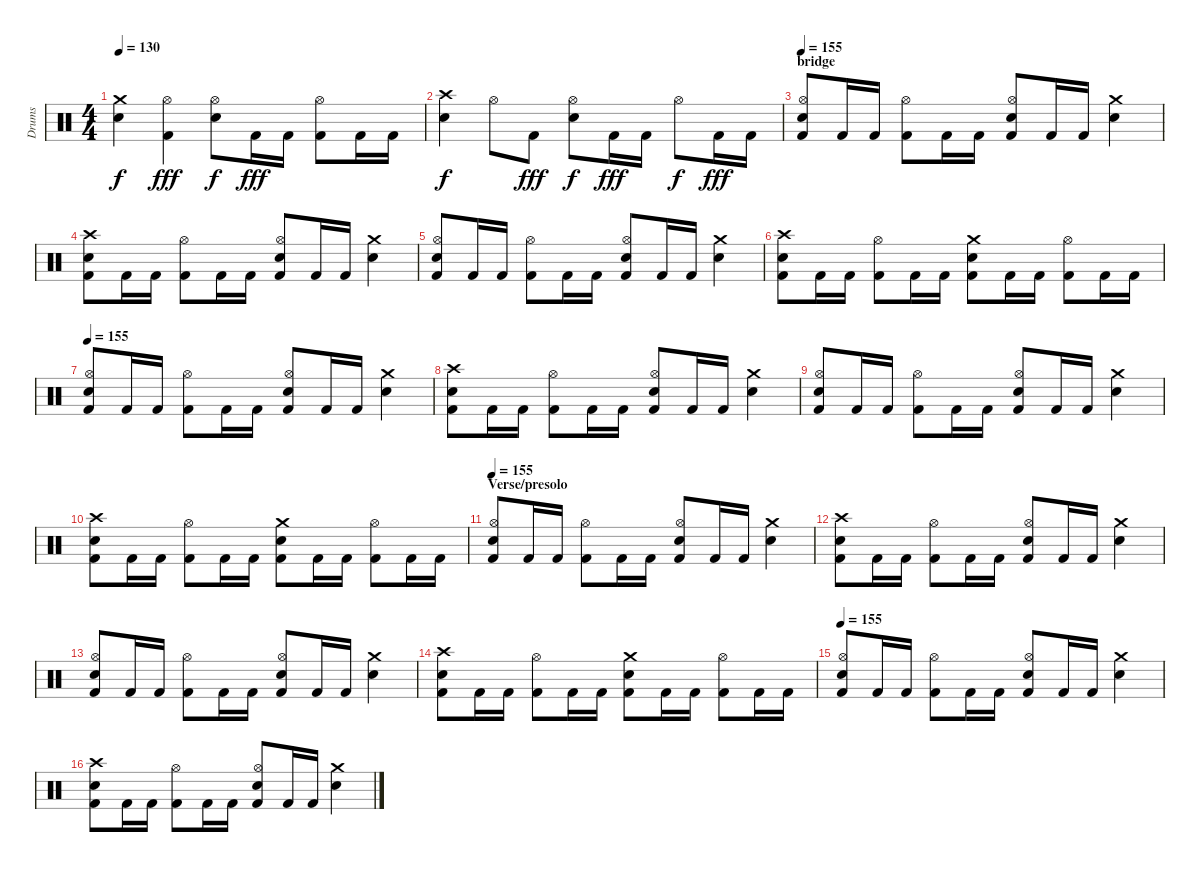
\track ("Drums" "Drums") {instrument percussion}
\staff {score}
\articulation defaults
\ts (4 4)
\tempo 130
\clef neutral
\ks c
("Crash medium (hit)" "Electric Snare (hit)").4{dy f} ("Hi-Hat (open)" "Kick (hit) 2").4{dy fff} ("Hi-Hat (open)" "Electric Snare (hit)").8{dy f} "Kick (hit) 2".16{dy fff} "Kick (hit) 2".16 ("Hi-Hat (open)" "Kick (hit) 2").8 "Kick (hit) 2".16 "Kick (hit) 2".16 |
("Crash high (hit)" "Electric Snare (hit)").4{dy f} "Hi-Hat (open)".8 "Kick (hit) 2".8{dy fff} ("Hi-Hat (open)" "Electric Snare (hit)").8{dy f} "Kick (hit) 2".16{dy fff} "Kick (hit) 2".16 "Hi-Hat (open)".8{dy f} "Kick (hit) 2".16{dy fff} "Kick (hit) 2".16 |
\section ("" "bridge")
\tempo 155
("Hi-Hat (open)" "Electric Snare (hit)" "Kick (hit) 2").8 "Kick (hit) 2".16 "Kick (hit) 2".16 ("Hi-Hat (open)" "Kick (hit) 2").8 "Kick (hit) 2".16 "Kick (hit) 2".16 ("Hi-Hat (open)" "Electric Snare (hit)" "Kick (hit) 2").8 "Kick (hit) 2".16 "Kick (hit) 2".16 ("Crash medium (hit)" "Electric Snare (hit)").4 |
("Crash high (hit)" "Electric Snare (hit)" "Kick (hit) 2").8 "Kick (hit) 2".16 "Kick (hit) 2".16 ("Hi-Hat (open)" "Kick (hit) 2").8 "Kick (hit) 2".16 "Kick (hit) 2".16 ("Hi-Hat (open)" "Electric Snare (hit)" "Kick (hit) 2").8 "Kick (hit) 2".16 "Kick (hit) 2".16 ("Crash medium (hit)" "Electric Snare (hit)").4 |
("Hi-Hat (open)" "Electric Snare (hit)" "Kick (hit) 2").8 "Kick (hit) 2".16 "Kick (hit) 2".16 ("Hi-Hat (open)" "Kick (hit) 2").8 "Kick (hit) 2".16 "Kick (hit) 2".16 ("Hi-Hat (open)" "Electric Snare (hit)" "Kick (hit) 2").8 "Kick (hit) 2".16 "Kick (hit) 2".16 ("Crash medium (hit)" "Electric Snare (hit)").4 |
("Crash high (hit)" "Electric Snare (hit)" "Kick (hit) 2").8 "Kick (hit) 2".16 "Kick (hit) 2".16 ("Hi-Hat (open)" "Kick (hit) 2").8 "Kick (hit) 2".16 "Kick (hit) 2".16 ("Crash medium (hit)" "Electric Snare (hit)" "Kick (hit) 2").8 "Kick (hit) 2".16 "Kick (hit) 2".16 ("Hi-Hat (open)" "Kick (hit) 2").8 "Kick (hit) 2".16 "Kick (hit) 2".16 |
\tempo 155
("Hi-Hat (open)" "Electric Snare (hit)" "Kick (hit) 2").8 "Kick (hit) 2".16 "Kick (hit) 2".16 ("Hi-Hat (open)" "Kick (hit) 2").8 "Kick (hit) 2".16 "Kick (hit) 2".16 ("Hi-Hat (open)" "Electric Snare (hit)" "Kick (hit) 2").8 "Kick (hit) 2".16 "Kick (hit) 2".16 ("Crash medium (hit)" "Electric Snare (hit)").4 |
("Crash high (hit)" "Electric Snare (hit)" "Kick (hit) 2").8 "Kick (hit) 2".16 "Kick (hit) 2".16 ("Hi-Hat (open)" "Kick (hit) 2").8 "Kick (hit) 2".16 "Kick (hit) 2".16 ("Hi-Hat (open)" "Electric Snare (hit)" "Kick (hit) 2").8 "Kick (hit) 2".16 "Kick (hit) 2".16 ("Crash medium (hit)" "Electric Snare (hit)").4 |
("Hi-Hat (open)" "Electric Snare (hit)" "Kick (hit) 2").8 "Kick (hit) 2".16 "Kick (hit) 2".16 ("Hi-Hat (open)" "Kick (hit) 2").8 "Kick (hit) 2".16 "Kick (hit) 2".16 ("Hi-Hat (open)" "Electric Snare (hit)" "Kick (hit) 2").8 "Kick (hit) 2".16 "Kick (hit) 2".16 ("Crash medium (hit)" "Electric Snare (hit)").4 |
("Crash high (hit)" "Electric Snare (hit)" "Kick (hit) 2").8 "Kick (hit) 2".16 "Kick (hit) 2".16 ("Hi-Hat (open)" "Kick (hit) 2").8 "Kick (hit) 2".16 "Kick (hit) 2".16 ("Crash medium (hit)" "Electric Snare (hit)" "Kick (hit) 2").8 "Kick (hit) 2".16 "Kick (hit) 2".16 ("Hi-Hat (open)" "Kick (hit) 2").8 "Kick (hit) 2".16 "Kick (hit) 2".16 |
\section ("" "Verse/presolo")
\tempo 155
("Hi-Hat (open)" "Electric Snare (hit)" "Kick (hit) 2").8 "Kick (hit) 2".16 "Kick (hit) 2".16 ("Hi-Hat (open)" "Kick (hit) 2").8 "Kick (hit) 2".16 "Kick (hit) 2".16 ("Hi-Hat (open)" "Electric Snare (hit)" "Kick (hit) 2").8 "Kick (hit) 2".16 "Kick (hit) 2".16 ("Crash medium (hit)" "Electric Snare (hit)").4 |
("Crash high (hit)" "Electric Snare (hit)" "Kick (hit) 2").8 "Kick (hit) 2".16 "Kick (hit) 2".16 ("Hi-Hat (open)" "Kick (hit) 2").8 "Kick (hit) 2".16 "Kick (hit) 2".16 ("Hi-Hat (open)" "Electric Snare (hit)" "Kick (hit) 2").8 "Kick (hit) 2".16 "Kick (hit) 2".16 ("Crash medium (hit)" "Electric Snare (hit)").4 |
("Hi-Hat (open)" "Electric Snare (hit)" "Kick (hit) 2").8 "Kick (hit) 2".16 "Kick (hit) 2".16 ("Hi-Hat (open)" "Kick (hit) 2").8 "Kick (hit) 2".16 "Kick (hit) 2".16 ("Hi-Hat (open)" "Electric Snare (hit)" "Kick (hit) 2").8 "Kick (hit) 2".16 "Kick (hit) 2".16 ("Crash medium (hit)" "Electric Snare (hit)").4 |
("Crash high (hit)" "Electric Snare (hit)" "Kick (hit) 2").8 "Kick (hit) 2".16 "Kick (hit) 2".16 ("Hi-Hat (open)" "Kick (hit) 2").8 "Kick (hit) 2".16 "Kick (hit) 2".16 ("Crash medium (hit)" "Electric Snare (hit)" "Kick (hit) 2").8 "Kick (hit) 2".16 "Kick (hit) 2".16 ("Hi-Hat (open)" "Kick (hit) 2").8 "Kick (hit) 2".16 "Kick (hit) 2".16 |
\tempo 155
("Hi-Hat (open)" "Electric Snare (hit)" "Kick (hit) 2").8 "Kick (hit) 2".16 "Kick (hit) 2".16 ("Hi-Hat (open)" "Kick (hit) 2").8 "Kick (hit) 2".16 "Kick (hit) 2".16 ("Hi-Hat (open)" "Electric Snare (hit)" "Kick (hit) 2").8 "Kick (hit) 2".16 "Kick (hit) 2".16 ("Crash medium (hit)" "Electric Snare (hit)").4 |
("Crash high (hit)" "Electric Snare (hit)" "Kick (hit) 2").8 "Kick (hit) 2".16 "Kick (hit) 2".16 ("Hi-Hat (open)" "Kick (hit) 2").8 "Kick (hit) 2".16 "Kick (hit) 2".16 ("Hi-Hat (open)" "Electric Snare (hit)" "Kick (hit) 2").8 "Kick (hit) 2".16 "Kick (hit) 2".16 ("Crash medium (hit)" "Electric Snare (hit)").4
